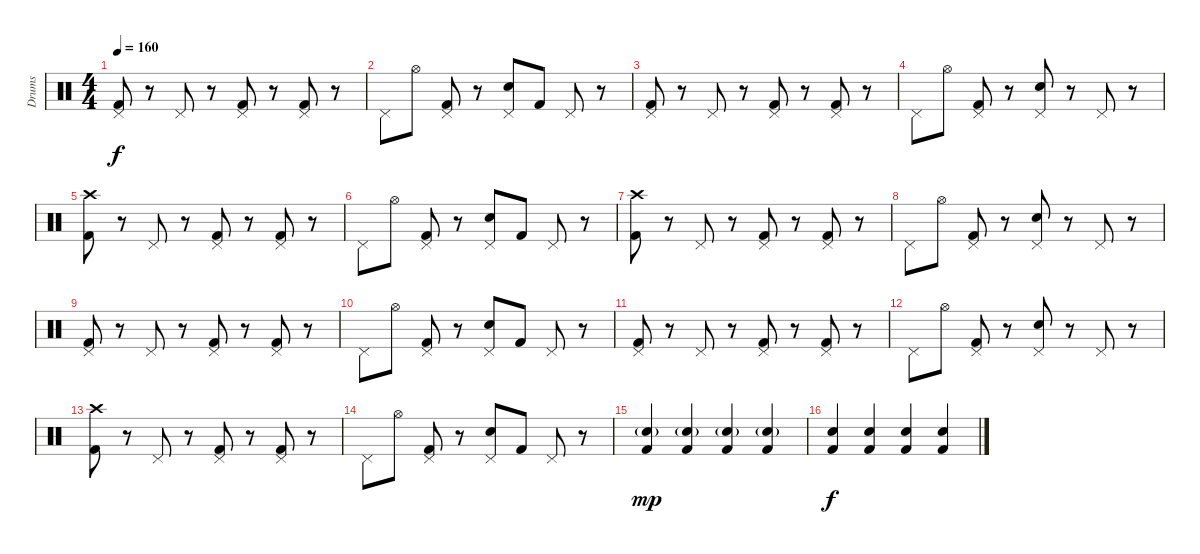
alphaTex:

\track ("Drums" "Drums") {instrument percussion}
\staff {score}
\articulation defaults
\ts (4 4)
\tempo 160
\clef neutral
\ks c
("Pedal Hi-Hat (hit)" "Kick (hit) 2").8{dy f} r.8 "Pedal Hi-Hat (hit)".8 r.8 ("Pedal Hi-Hat (hit)" "Kick (hit) 2").8 r.8 ("Pedal Hi-Hat (hit)" "Kick (hit) 2").8 r.8 |
"Pedal Hi-Hat (hit)".8 "Hi-Hat (open)".8 ("Pedal Hi-Hat (hit)" "Kick (hit) 2").8 r.8 ("Pedal Hi-Hat (hit)" "Electric Snare (hit)").8 "Kick (hit) 2".8 "Pedal Hi-Hat (hit)".8 r.8 |
("Pedal Hi-Hat (hit)" "Kick (hit) 2").8 r.8 "Pedal Hi-Hat (hit)".8 r.8 ("Pedal Hi-Hat (hit)" "Kick (hit) 2").8 r.8 ("Pedal Hi-Hat (hit)" "Kick (hit) 2").8 r.8 |
"Pedal Hi-Hat (hit)".8 "Hi-Hat (open)".8 ("Pedal Hi-Hat (hit)" "Kick (hit) 2").8 r.8 ("Pedal Hi-Hat (hit)" "Electric Snare (hit)").8 r.8 "Pedal Hi-Hat (hit)".8 r.8 |
("Crash high (hit)" "Kick (hit) 2").8 r.8 "Pedal Hi-Hat (hit)".8 r.8 ("Pedal Hi-Hat (hit)" "Kick (hit) 2").8 r.8 ("Pedal Hi-Hat (hit)" "Kick (hit) 2").8 r.8 |
"Pedal Hi-Hat (hit)".8 "Hi-Hat (open)".8 ("Pedal Hi-Hat (hit)" "Kick (hit) 2").8 r.8 ("Pedal Hi-Hat (hit)" "Electric Snare (hit)").8 "Kick (hit) 2".8 "Pedal Hi-Hat (hit)".8 r.8 |
("Crash high (hit)" "Kick (hit) 2").8 r.8 "Pedal Hi-Hat (hit)".8 r.8 ("Pedal Hi-Hat (hit)" "Kick (hit) 2").8 r.8 ("Pedal Hi-Hat (hit)" "Kick (hit) 2").8 r.8 |
"Pedal Hi-Hat (hit)".8 "Hi-Hat (open)".8 ("Pedal Hi-Hat (hit)" "Kick (hit) 2").8 r.8 ("Pedal Hi-Hat (hit)" "Electric Snare (hit)").8 r.8 "Pedal Hi-Hat (hit)".8 r.8 |
("Pedal Hi-Hat (hit)" "Kick (hit) 2").8 r.8 "Pedal Hi-Hat (hit)".8 r.8 ("Pedal Hi-Hat (hit)" "Kick (hit) 2").8 r.8 ("Pedal Hi-Hat (hit)" "Kick (hit) 2").8 r.8 |
"Pedal Hi-Hat (hit)".8 "Hi-Hat (open)".8 ("Pedal Hi-Hat (hit)" "Kick (hit) 2").8 r.8 ("Pedal Hi-Hat (hit)" "Electric Snare (hit)").8 "Kick (hit) 2".8 "Pedal Hi-Hat (hit)".8 r.8 |
("Pedal Hi-Hat (hit)" "Kick (hit) 2").8 r.8 "Pedal Hi-Hat (hit)".8 r.8 ("Pedal Hi-Hat (hit)" "Kick (hit) 2").8 r.8 ("Pedal Hi-Hat (hit)" "Kick (hit) 2").8 r.8 |
"Pedal Hi-Hat (hit)".8 "Hi-Hat (open)".8 ("Pedal Hi-Hat (hit)" "Kick (hit) 2").8 r.8 ("Pedal Hi-Hat (hit)" "Electric Snare (hit)").8 r.8 "Pedal Hi-Hat (hit)".8 r.8 |
("Crash high (hit)" "Kick (hit) 2").8 r.8 "Pedal Hi-Hat (hit)".8 r.8 ("Pedal Hi-Hat (hit)" "Kick (hit) 2").8 r.8 ("Pedal Hi-Hat (hit)" "Kick (hit) 2").8 r.8 |
"Pedal Hi-Hat (hit)".8 "Hi-Hat (open)".8 ("Pedal Hi-Hat (hit)" "Kick (hit) 2").8 r.8 ("Pedal Hi-Hat (hit)" "Electric Snare (hit)").8 "Kick (hit) 2".8 "Pedal Hi-Hat (hit)".8 r.8 |
("Electric Snare (hit)"{g} "Kick (hit) 2").4{dy mp} ("Electric Snare (hit)"{g} "Kick (hit) 2").4 ("Electric Snare (hit)"{g} "Kick (hit) 2").4 ("Electric Snare (hit)"{g} "Kick (hit) 2").4 |
("Electric Snare (hit)" "Kick (hit) 2").4{dy f} ("Electric Snare (hit)" "Kick (hit) 2").4 ("Electric Snare (hit)" "Kick (hit) 2").4 ("Electric Snare (hit)" "Kick (hit) 2").4
